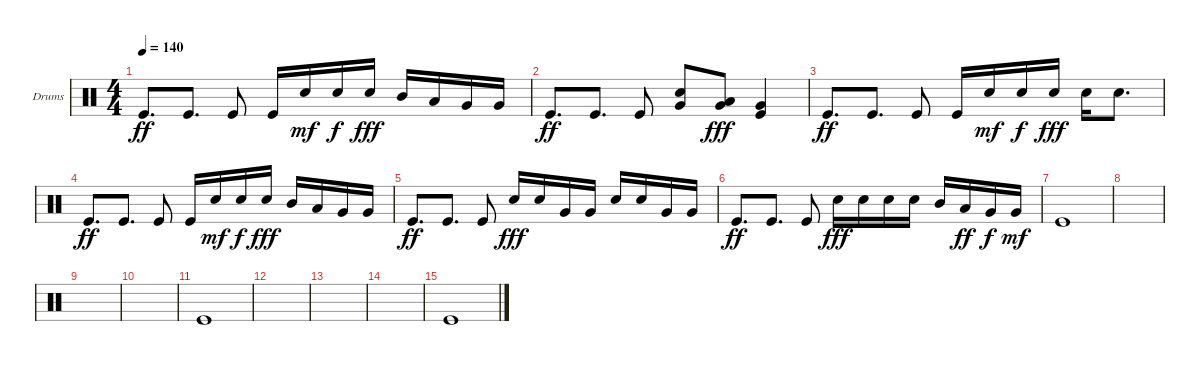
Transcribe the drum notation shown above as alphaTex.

\defaultSystemsLayout 4
\bracketExtendMode groupsimilarinstruments
\firstSystemTrackNameOrientation horizontal
\otherSystemsTrackNameOrientation horizontal
\track ("Helders" "Drums") {instrument percussion}
\staff {score}
\articulation defaults
\ts (4 4)
\tempo 140
\clef neutral
\ks c "Kick (hit)".8{d dy ff} "Kick (hit)".8{d} "Kick (hit)".8 "Kick (hit)".16 "Snare (hit) 2".16{dy mf} "Snare (hit) 2".16{dy f} "Snare (hit) 2".16{dy fff} "Mid Tom (hit)".16 "Low Tom (hit)".16 "Very Low Tom (hit)".16 "Very Low Tom (hit)".16
|
"Kick (hit)".8{d dy ff} "Kick (hit)".8{d} "Kick (hit)".8 ("Snare (hit) 2" "Very Low Tom (hit)").8 ("Low Tom (hit)" "Very Low Tom (hit)").8{dy fff} ("Kick (hit)" "Very Low Tom (hit)").4 |
"Kick (hit)".8{d dy ff} "Kick (hit)".8{d} "Kick (hit)".8 "Kick (hit)".16 "Snare (hit) 2".16{dy mf} "Snare (hit) 2".16{dy f} "Snare (hit) 2".16{dy fff} "Snare (hit) 2".16 "Snare (hit) 2".8{d} |
"Kick (hit)".8{d dy ff} "Kick (hit)".8{d} "Kick (hit)".8 "Kick (hit)".16 "Snare (hit) 2".16{dy mf} "Snare (hit) 2".16{dy f} "Snare (hit) 2".16{dy fff} "Mid Tom (hit)".16 "Low Tom (hit)".16 "Very Low Tom (hit)".16 "Very Low Tom (hit)".16 |
"Kick (hit)".8{d dy ff} "Kick (hit)".8{d} "Kick (hit)".8 "Snare (hit) 2".16{dy fff} "Snare (hit) 2".16 "Very Low Tom (hit)".16 "Very Low Tom (hit)".16 "Snare (hit) 2".16 "Snare (hit) 2".16 "Very Low Tom (hit)".16 "Very Low Tom (hit)".16 |
"Kick (hit)".8{d dy ff} "Kick (hit)".8{d} "Kick (hit)".8 "Snare (hit) 2".16{dy fff} "Snare (hit) 2".16 "Snare (hit) 2".16 "Snare (hit) 2".16 "Mid Tom (hit)".16 "Low Tom (hit)".16{dy ff} "Very Low Tom (hit)".16{dy f} "Very Low Tom (hit)".16{dy mf} |
"Kick (hit)".1 |
|
|
|
"Kick (hit)".1 |
|
|
|
"Kick (hit)".1
